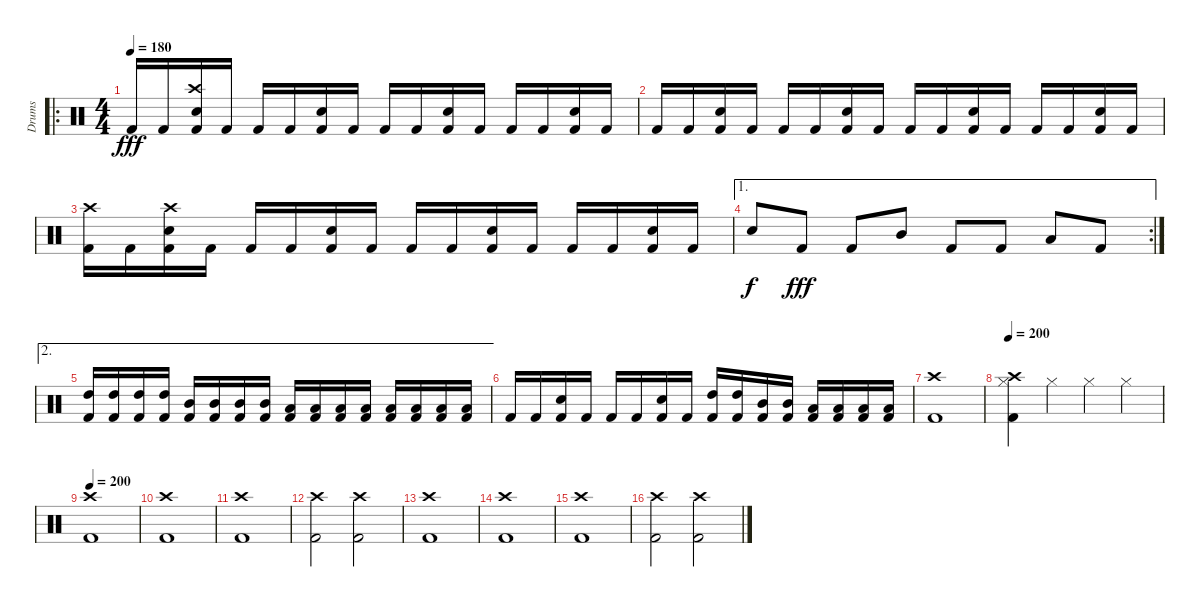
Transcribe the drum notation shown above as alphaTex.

\track ("Drums" "Drums") {instrument percussion}
\staff {score}
\articulation defaults
\ro
\ts (4 4)
\tempo 180
\clef neutral
\ks c "Kick (hit) 2".16{dy fff} "Kick (hit) 2".16
("Crash high (hit)" "Snare (hit) 2" "Kick (hit) 2").16 "Kick (hit) 2".16 "Kick (hit) 2".16 "Kick (hit) 2".16 ("Snare (hit) 2" "Kick (hit) 2").16 "Kick (hit) 2".16 "Kick (hit) 2".16 "Kick (hit) 2".16 ("Snare (hit) 2" "Kick (hit) 2").16 "Kick (hit) 2".16 "Kick (hit) 2".16 "Kick (hit) 2".16 ("Snare (hit) 2" "Kick (hit) 2").16 "Kick (hit) 2".16 |
"Kick (hit) 2".16 "Kick (hit) 2".16 ("Snare (hit) 2" "Kick (hit) 2").16 "Kick (hit) 2".16 "Kick (hit) 2".16 "Kick (hit) 2".16 ("Snare (hit) 2" "Kick (hit) 2").16 "Kick (hit) 2".16 "Kick (hit) 2".16 "Kick (hit) 2".16 ("Snare (hit) 2" "Kick (hit) 2").16 "Kick (hit) 2".16 "Kick (hit) 2".16 "Kick (hit) 2".16 ("Snare (hit) 2" "Kick (hit) 2").16 "Kick (hit) 2".16 |
("Crash high (hit)" "Kick (hit) 2").16 "Kick (hit) 2".16 ("Crash high (hit)" "Snare (hit) 2" "Kick (hit) 2").16 "Kick (hit) 2".16 "Kick (hit) 2".16 "Kick (hit) 2".16 ("Snare (hit) 2" "Kick (hit) 2").16 "Kick (hit) 2".16 "Kick (hit) 2".16 "Kick (hit) 2".16 ("Snare (hit) 2" "Kick (hit) 2").16 "Kick (hit) 2".16 "Kick (hit) 2".16 "Kick (hit) 2".16 ("Snare (hit) 2" "Kick (hit) 2").16 "Kick (hit) 2".16 |
\ae 1
\rc 2 "Snare (hit) 2".8{dy f} "Kick (hit) 2".8{dy fff} "Kick (hit) 2".8 "Mid Tom (hit)".8 "Kick (hit) 2".8 "Kick (hit) 2".8 "Low Tom (hit)".8 "Kick (hit) 2".8
|
\ae 2
("High Tom (hit)" "Kick (hit) 2").16 ("High Tom (hit)" "Kick (hit) 2").16 ("High Tom (hit)" "Kick (hit) 2").16 ("High Tom (hit)" "Kick (hit) 2").16 ("Mid Tom (hit)" "Kick (hit) 2").16 ("Mid Tom (hit)" "Kick (hit) 2").16 ("Mid Tom (hit)" "Kick (hit) 2").16 ("Mid Tom (hit)" "Kick (hit) 2").16 ("Low Tom (hit)" "Kick (hit) 2").16 ("Low Tom (hit)" "Kick (hit) 2").16 ("Low Tom (hit)" "Kick (hit) 2").16 ("Low Tom (hit)" "Kick (hit) 2").16 ("Low Floor Tom (hit)" "Kick (hit) 2").16 ("Low Floor Tom (hit)" "Kick (hit) 2").16 ("Low Floor Tom (hit)" "Kick (hit) 2").16 ("Low Floor Tom (hit)" "Kick (hit) 2").16 |
"Kick (hit) 2".16 "Kick (hit) 2".16 ("Snare (hit) 2" "Kick (hit) 2").16 "Kick (hit) 2".16 "Kick (hit) 2".16 "Kick (hit) 2".16 ("Snare (hit) 2" "Kick (hit) 2").16 "Kick (hit) 2".16 ("High Tom (hit)" "Kick (hit) 2").16 ("High Tom (hit)" "Kick (hit) 2").16 ("Mid Tom (hit)" "Kick (hit) 2").16 ("Mid Tom (hit)" "Kick (hit) 2").16 ("Low Tom (hit)" "Kick (hit) 2").16 ("Low Tom (hit)" "Kick (hit) 2").16 ("Low Floor Tom (hit)" "Kick (hit) 2").16 ("Low Floor Tom (hit)" "Kick (hit) 2").16 |
("Crash high (hit)" "Kick (hit) 2").1 |
\tempo 200
("Crash high (hit)" "Hi-Hat (closed)" "Kick (hit) 2").4 "Hi-Hat (closed)".4 "Hi-Hat (closed)".4 "Hi-Hat (closed)".4 |
\tempo 200
("Crash high (hit)" "Kick (hit) 2").1 |
("Crash high (hit)" "Kick (hit) 2").1 |
("Crash high (hit)" "Kick (hit) 2").1 |
("Crash high (hit)" "Kick (hit) 2").2 ("Crash high (hit)" "Kick (hit) 2").2 |
("Crash high (hit)" "Kick (hit) 2").1 |
("Crash high (hit)" "Kick (hit) 2").1 |
("Crash high (hit)" "Kick (hit) 2").1 |
("Crash high (hit)" "Kick (hit) 2").2 ("Crash high (hit)" "Kick (hit) 2").2
